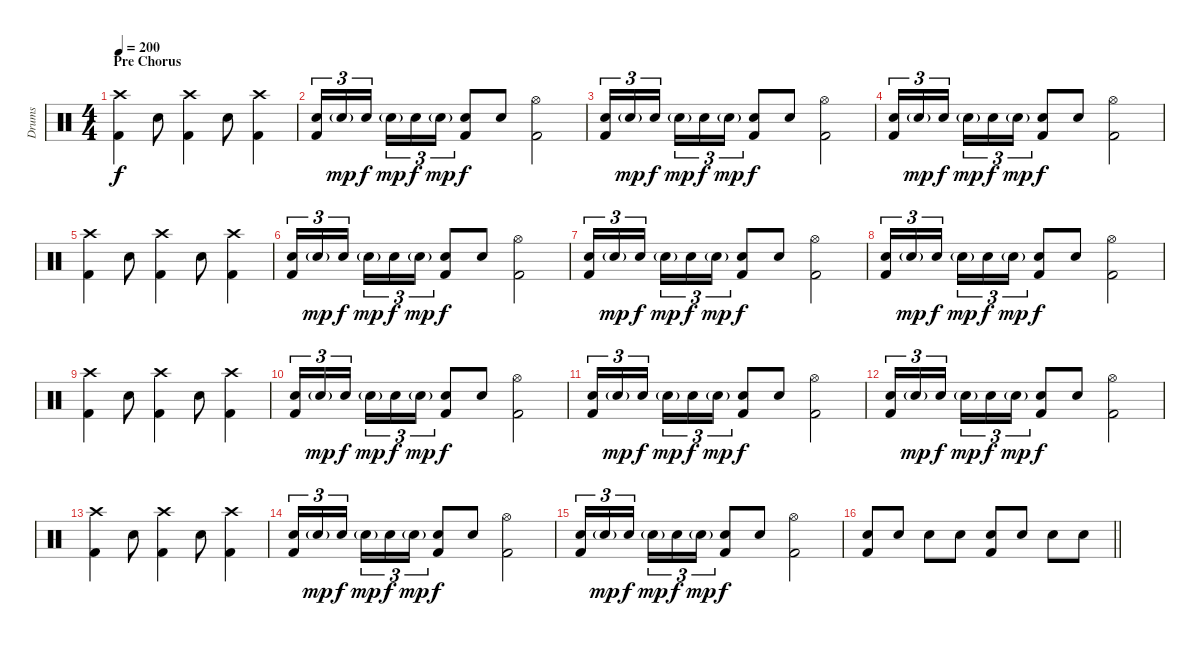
\track ("Drums" "Drums") {instrument percussion}
\staff {score}
\articulation defaults
\ts (4 4)
\section ("" "Pre Chorus")
\tempo 200
\clef neutral
\ks c
("Crash high (hit)" "Kick (hit) 2").4{dy f} "Electric Snare (hit)".8 ("Crash high (hit)" "Kick (hit) 2").4 "Electric Snare (hit)".8 ("Crash high (hit)" "Kick (hit) 2").4 |
("Electric Snare (hit)" "Kick (hit) 2").16{tu (3 2)} "Electric Snare (hit)"{g}.16{tu (3 2) dy mp} "Electric Snare (hit)".16{tu (3 2) dy f beam splitsecondary} "Electric Snare (hit)"{g}.16{tu (3 2) dy mp} "Electric Snare (hit)".16{tu (3 2) dy f} "Electric Snare (hit)"{g}.16{tu (3 2) dy mp} ("Electric Snare (hit)" "Kick (hit) 2").8{dy f} "Electric Snare (hit)".8 ("Hi-Hat (open)" "Kick (hit) 2").2 |
("Electric Snare (hit)" "Kick (hit) 2").16{tu (3 2)} "Electric Snare (hit)"{g}.16{tu (3 2) dy mp} "Electric Snare (hit)".16{tu (3 2) dy f beam splitsecondary} "Electric Snare (hit)"{g}.16{tu (3 2) dy mp} "Electric Snare (hit)".16{tu (3 2) dy f} "Electric Snare (hit)"{g}.16{tu (3 2) dy mp} ("Electric Snare (hit)" "Kick (hit) 2").8{dy f} "Electric Snare (hit)".8 ("Hi-Hat (open)" "Kick (hit) 2").2 |
("Electric Snare (hit)" "Kick (hit) 2").16{tu (3 2)} "Electric Snare (hit)"{g}.16{tu (3 2) dy mp} "Electric Snare (hit)".16{tu (3 2) dy f beam splitsecondary} "Electric Snare (hit)"{g}.16{tu (3 2) dy mp} "Electric Snare (hit)".16{tu (3 2) dy f} "Electric Snare (hit)"{g}.16{tu (3 2) dy mp} ("Electric Snare (hit)" "Kick (hit) 2").8{dy f} "Electric Snare (hit)".8 ("Hi-Hat (open)" "Kick (hit) 2").2 |
("Crash high (hit)" "Kick (hit) 2").4 "Electric Snare (hit)".8 ("Crash high (hit)" "Kick (hit) 2").4 "Electric Snare (hit)".8 ("Crash high (hit)" "Kick (hit) 2").4 |
("Electric Snare (hit)" "Kick (hit) 2").16{tu (3 2)} "Electric Snare (hit)"{g}.16{tu (3 2) dy mp} "Electric Snare (hit)".16{tu (3 2) dy f beam splitsecondary} "Electric Snare (hit)"{g}.16{tu (3 2) dy mp} "Electric Snare (hit)".16{tu (3 2) dy f} "Electric Snare (hit)"{g}.16{tu (3 2) dy mp} ("Electric Snare (hit)" "Kick (hit) 2").8{dy f} "Electric Snare (hit)".8 ("Hi-Hat (open)" "Kick (hit) 2").2 |
("Electric Snare (hit)" "Kick (hit) 2").16{tu (3 2)} "Electric Snare (hit)"{g}.16{tu (3 2) dy mp} "Electric Snare (hit)".16{tu (3 2) dy f beam splitsecondary} "Electric Snare (hit)"{g}.16{tu (3 2) dy mp} "Electric Snare (hit)".16{tu (3 2) dy f} "Electric Snare (hit)"{g}.16{tu (3 2) dy mp} ("Electric Snare (hit)" "Kick (hit) 2").8{dy f} "Electric Snare (hit)".8 ("Hi-Hat (open)" "Kick (hit) 2").2 |
("Electric Snare (hit)" "Kick (hit) 2").16{tu (3 2)} "Electric Snare (hit)"{g}.16{tu (3 2) dy mp} "Electric Snare (hit)".16{tu (3 2) dy f beam splitsecondary} "Electric Snare (hit)"{g}.16{tu (3 2) dy mp} "Electric Snare (hit)".16{tu (3 2) dy f} "Electric Snare (hit)"{g}.16{tu (3 2) dy mp} ("Electric Snare (hit)" "Kick (hit) 2").8{dy f} "Electric Snare (hit)".8 ("Hi-Hat (open)" "Kick (hit) 2").2 |
("Crash high (hit)" "Kick (hit) 2").4 "Electric Snare (hit)".8 ("Crash high (hit)" "Kick (hit) 2").4 "Electric Snare (hit)".8 ("Crash high (hit)" "Kick (hit) 2").4 |
("Electric Snare (hit)" "Kick (hit) 2").16{tu (3 2)} "Electric Snare (hit)"{g}.16{tu (3 2) dy mp} "Electric Snare (hit)".16{tu (3 2) dy f beam splitsecondary} "Electric Snare (hit)"{g}.16{tu (3 2) dy mp} "Electric Snare (hit)".16{tu (3 2) dy f} "Electric Snare (hit)"{g}.16{tu (3 2) dy mp} ("Electric Snare (hit)" "Kick (hit) 2").8{dy f} "Electric Snare (hit)".8 ("Hi-Hat (open)" "Kick (hit) 2").2 |
("Electric Snare (hit)" "Kick (hit) 2").16{tu (3 2)} "Electric Snare (hit)"{g}.16{tu (3 2) dy mp} "Electric Snare (hit)".16{tu (3 2) dy f beam splitsecondary} "Electric Snare (hit)"{g}.16{tu (3 2) dy mp} "Electric Snare (hit)".16{tu (3 2) dy f} "Electric Snare (hit)"{g}.16{tu (3 2) dy mp} ("Electric Snare (hit)" "Kick (hit) 2").8{dy f} "Electric Snare (hit)".8 ("Hi-Hat (open)" "Kick (hit) 2").2 |
("Electric Snare (hit)" "Kick (hit) 2").16{tu (3 2)} "Electric Snare (hit)"{g}.16{tu (3 2) dy mp} "Electric Snare (hit)".16{tu (3 2) dy f beam splitsecondary} "Electric Snare (hit)"{g}.16{tu (3 2) dy mp} "Electric Snare (hit)".16{tu (3 2) dy f} "Electric Snare (hit)"{g}.16{tu (3 2) dy mp} ("Electric Snare (hit)" "Kick (hit) 2").8{dy f} "Electric Snare (hit)".8 ("Hi-Hat (open)" "Kick (hit) 2").2 |
("Crash high (hit)" "Kick (hit) 2").4 "Electric Snare (hit)".8 ("Crash high (hit)" "Kick (hit) 2").4 "Electric Snare (hit)".8 ("Crash high (hit)" "Kick (hit) 2").4 |
("Electric Snare (hit)" "Kick (hit) 2").16{tu (3 2)} "Electric Snare (hit)"{g}.16{tu (3 2) dy mp} "Electric Snare (hit)".16{tu (3 2) dy f beam splitsecondary} "Electric Snare (hit)"{g}.16{tu (3 2) dy mp} "Electric Snare (hit)".16{tu (3 2) dy f} "Electric Snare (hit)"{g}.16{tu (3 2) dy mp} ("Electric Snare (hit)" "Kick (hit) 2").8{dy f} "Electric Snare (hit)".8 ("Hi-Hat (open)" "Kick (hit) 2").2 |
("Electric Snare (hit)" "Kick (hit) 2").16{tu (3 2)} "Electric Snare (hit)"{g}.16{tu (3 2) dy mp} "Electric Snare (hit)".16{tu (3 2) dy f beam splitsecondary} "Electric Snare (hit)"{g}.16{tu (3 2) dy mp} "Electric Snare (hit)".16{tu (3 2) dy f} "Electric Snare (hit)"{g}.16{tu (3 2) dy mp} ("Electric Snare (hit)" "Kick (hit) 2").8{dy f} "Electric Snare (hit)".8 ("Hi-Hat (open)" "Kick (hit) 2").2 |
\barLineRight lightlight
("Electric Snare (hit)" "Kick (hit) 2").8 "Electric Snare (hit)".8 "Electric Snare (hit)".8 "Electric Snare (hit)".8 ("Electric Snare (hit)" "Kick (hit) 2").8 "Electric Snare (hit)".8 "Electric Snare (hit)".8 "Electric Snare (hit)".8
